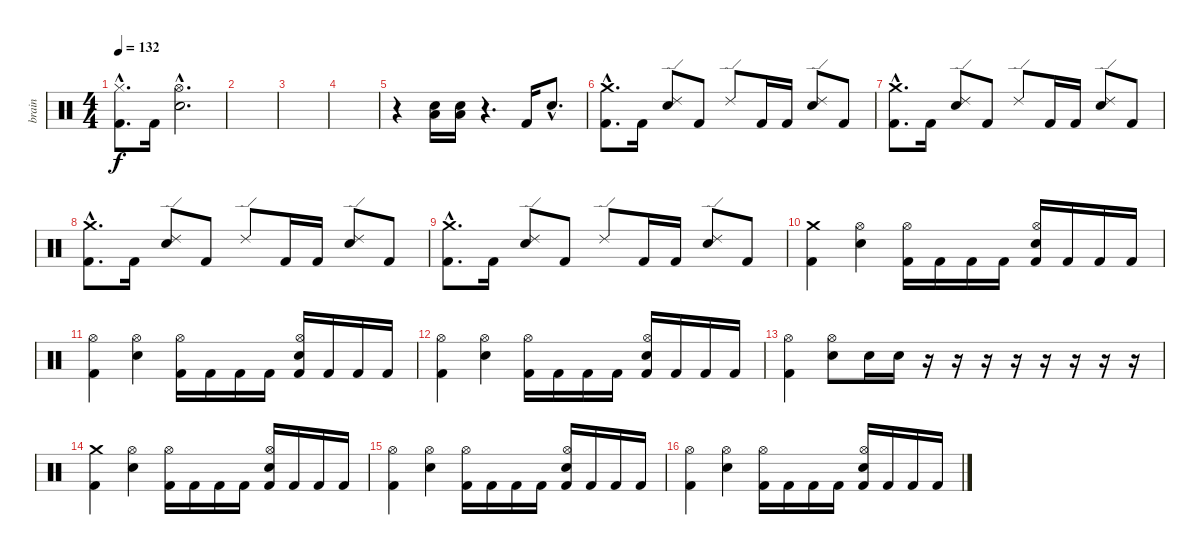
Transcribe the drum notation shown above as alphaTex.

\track ("brain" "brain") {instrument percussion}
\staff {score}
\articulation defaults
\ts (4 4)
\tempo 132
\clef neutral
\ks c
("Hi-Hat (closed)"{hac} "Kick (hit) 2"{hac}).8{d dy f} "Kick (hit) 2".16 ("Hi-Hat (open)"{hac} "Electric Snare (hit)"{hac}).2{d} |
|
|
|
r.4 ("Low Floor Tom (hit)" "Electric Snare (hit)").16 ("Low Floor Tom (hit)" "Electric Snare (hit)").16 r.4{d} "Kick (hit) 2".16 "Electric Snare (hit)"{hac}.8{d} |
("Crash medium (hit)"{hac} "Kick (hit) 2"{hac}).8{d} "Kick (hit) 2".16 ("Ride (edge) 2" "Electric Snare (hit)").8 "Kick (hit) 2".8 "Ride (edge) 2".8 "Kick (hit) 2".16 "Kick (hit) 2".16 ("Ride (edge) 2" "Electric Snare (hit)").8 "Kick (hit) 2".8 |
("Crash medium (hit)"{hac} "Kick (hit) 2"{hac}).8{d} "Kick (hit) 2".16 ("Ride (edge) 2" "Electric Snare (hit)").8 "Kick (hit) 2".8 "Ride (edge) 2".8 "Kick (hit) 2".16 "Kick (hit) 2".16 ("Ride (edge) 2" "Electric Snare (hit)").8 "Kick (hit) 2".8 |
("Crash medium (hit)"{hac} "Kick (hit) 2"{hac}).8{d} "Kick (hit) 2".16 ("Ride (edge) 2" "Electric Snare (hit)").8 "Kick (hit) 2".8 "Ride (edge) 2".8 "Kick (hit) 2".16 "Kick (hit) 2".16 ("Ride (edge) 2" "Electric Snare (hit)").8 "Kick (hit) 2".8 |
("Crash medium (hit)"{hac} "Kick (hit) 2"{hac}).8{d} "Kick (hit) 2".16 ("Ride (edge) 2" "Electric Snare (hit)").8 "Kick (hit) 2".8 "Ride (edge) 2".8 "Kick (hit) 2".16 "Kick (hit) 2".16 ("Ride (edge) 2" "Electric Snare (hit)").8 "Kick (hit) 2".8 |
("Crash medium (hit)" "Kick (hit) 2").4 ("Hi-Hat (open)" "Electric Snare (hit)").4 ("Hi-Hat (open)" "Kick (hit) 2").16 "Kick (hit) 2".16 "Kick (hit) 2".16 "Kick (hit) 2".16 ("Hi-Hat (open)" "Electric Snare (hit)" "Kick (hit) 2").16 "Kick (hit) 2".16 "Kick (hit) 2".16 "Kick (hit) 2".16 |
("Hi-Hat (open)" "Kick (hit) 2").4 ("Hi-Hat (open)" "Electric Snare (hit)").4 ("Hi-Hat (open)" "Kick (hit) 2").16 "Kick (hit) 2".16 "Kick (hit) 2".16 "Kick (hit) 2".16 ("Hi-Hat (open)" "Electric Snare (hit)" "Kick (hit) 2").16 "Kick (hit) 2".16 "Kick (hit) 2".16 "Kick (hit) 2".16 |
("Hi-Hat (open)" "Kick (hit) 2").4 ("Hi-Hat (open)" "Electric Snare (hit)").4 ("Hi-Hat (open)" "Kick (hit) 2").16 "Kick (hit) 2".16 "Kick (hit) 2".16 "Kick (hit) 2".16 ("Hi-Hat (open)" "Electric Snare (hit)" "Kick (hit) 2").16 "Kick (hit) 2".16 "Kick (hit) 2".16 "Kick (hit) 2".16 |
("Hi-Hat (open)" "Kick (hit) 2").4 ("Hi-Hat (open)" "Electric Snare (hit)").8 "Electric Snare (hit)".16 "Electric Snare (hit)".16 r.16 r.16 r.16 r.16 r.16 r.16 r.16 r.16 |
("Crash medium (hit)" "Kick (hit) 2").4 ("Hi-Hat (open)" "Electric Snare (hit)").4 ("Hi-Hat (open)" "Kick (hit) 2").16 "Kick (hit) 2".16 "Kick (hit) 2".16 "Kick (hit) 2".16 ("Hi-Hat (open)" "Electric Snare (hit)" "Kick (hit) 2").16 "Kick (hit) 2".16 "Kick (hit) 2".16 "Kick (hit) 2".16 |
("Hi-Hat (open)" "Kick (hit) 2").4 ("Hi-Hat (open)" "Electric Snare (hit)").4 ("Hi-Hat (open)" "Kick (hit) 2").16 "Kick (hit) 2".16 "Kick (hit) 2".16 "Kick (hit) 2".16 ("Hi-Hat (open)" "Electric Snare (hit)" "Kick (hit) 2").16 "Kick (hit) 2".16 "Kick (hit) 2".16 "Kick (hit) 2".16 |
("Hi-Hat (open)" "Kick (hit) 2").4 ("Hi-Hat (open)" "Electric Snare (hit)").4 ("Hi-Hat (open)" "Kick (hit) 2").16 "Kick (hit) 2".16 "Kick (hit) 2".16 "Kick (hit) 2".16 ("Hi-Hat (open)" "Electric Snare (hit)" "Kick (hit) 2").16 "Kick (hit) 2".16 "Kick (hit) 2".16 "Kick (hit) 2".16
